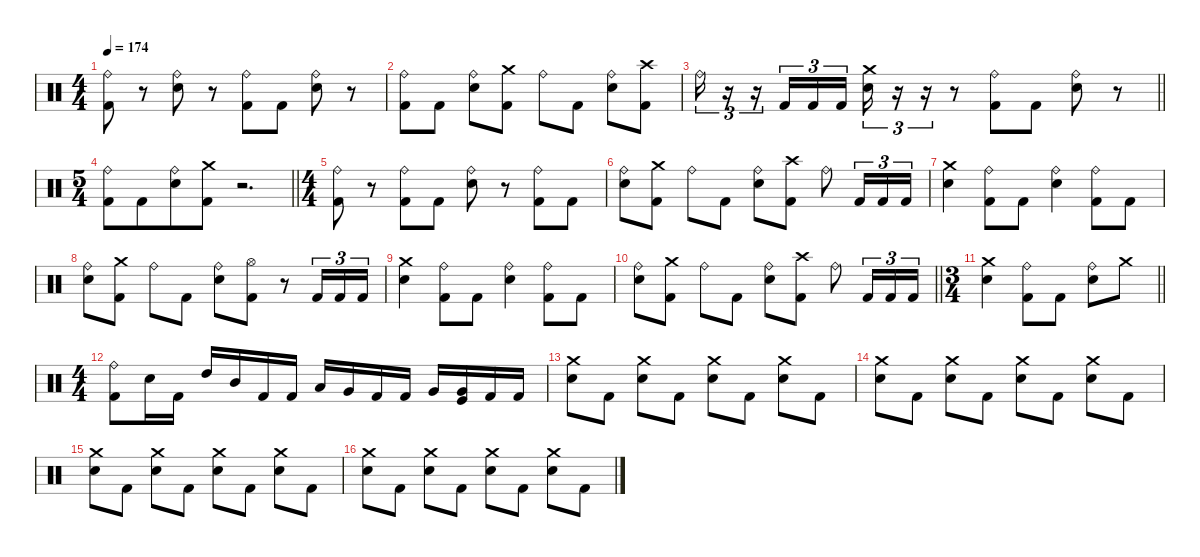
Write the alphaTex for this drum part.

\defaultSystemsLayout 4
\hideDynamics
\bracketExtendMode nobrackets
\singleTrackTrackNamePolicy hidden
\multiTrackTrackNamePolicy hidden
\firstSystemTrackNameMode fullname
\firstSystemTrackNameOrientation horizontal
\otherSystemsTrackNameOrientation horizontal
\track ("Drums" "drm.") {instrument percussion}
\staff {score}
\articulation defaults
\ts (4 4)
\tempo 174
\clef neutral
\ks c
("Ride (bell)" "Kick (hit) 2").8{dy f beam Down} r.8{beam Down} ("Ride (bell)" "Snare (hit) 2").8{beam Down} r.8{beam Down} ("Ride (bell)" "Kick (hit) 2").8{beam Down} "Kick (hit) 2".8{beam Down} ("Ride (bell)" "Snare (hit) 2").8{beam Down} r.8{beam Down} |
("Ride (bell)" "Kick (hit) 2").8{beam Down} "Kick (hit) 2".8{beam Down} ("Ride (bell)" "Snare (hit) 2").8{beam Down} ("Crash medium (hit)" "Kick (hit) 2").8{beam Down} "Ride (bell)".8{beam Down} "Kick (hit) 2".8{beam Down} ("Ride (bell)" "Snare (hit) 2").8{beam Down} ("Crash high (hit)" "Kick (hit) 2").8{beam Down} |
\barLineRight lightlight "Ride (bell)".16{tu (3 2) beam Down}
r.16{tu (3 2) beam Down} r.16{tu (3 2) beam Down} "Kick (hit) 2".16{tu (3 2) beam Up} "Kick (hit) 2".16{tu (3 2) beam Up} "Kick (hit) 2".16{tu (3 2) beam Up} ("Crash medium (hit)" "Snare (hit) 2").16{tu (3 2) beam Down} r.16{tu (3 2) beam Down} r.16{tu (3 2) beam Down} r.8{beam Down} ("Ride (bell)" "Kick (hit) 2").8{beam Down} "Kick (hit) 2".8{beam Down} ("Ride (bell)" "Snare (hit) 2").8{beam Down} r.8{beam Down} |
\ts (5 4)
\beaming (8 6 4)
\barLineRight lightlight
("Ride (bell)" "Kick (hit) 2").8{beam Down} "Kick (hit) 2".8{beam Down} ("Ride (bell)" "Snare (hit) 2").8{beam Down} ("Crash medium (hit)" "Kick (hit) 2").8{beam Down} r.2{d beam Down} |
\ts (4 4)
\beaming (8 2 2 2 2)
("Ride (bell)" "Kick (hit) 2").8{beam Down} r.8{beam Down} ("Ride (bell)" "Kick (hit) 2").8{beam Down} "Kick (hit) 2".8{beam Down} ("Ride (bell)" "Snare (hit) 2").8{beam Down} r.8{beam Down} ("Ride (bell)" "Kick (hit) 2").8{beam Down} "Kick (hit) 2".8{beam Down} |
("Ride (bell)" "Snare (hit) 2").8{beam Down} ("Crash medium (hit)" "Kick (hit) 2").8{beam Down} "Ride (bell)".8{beam Down} "Kick (hit) 2".8{beam Down} ("Ride (bell)" "Snare (hit) 2").8{beam Down} ("Crash high (hit)" "Kick (hit) 2").8{beam Down} "Ride (bell)".8{beam Down} "Kick (hit) 2".16{tu (3 2) beam Up} "Kick (hit) 2".16{tu (3 2) beam Up} "Kick (hit) 2".16{tu (3 2) beam Up} |
("Crash medium (hit)" "Snare (hit) 2").4{beam Down} ("Ride (bell)" "Kick (hit) 2").8{beam Down} "Kick (hit) 2".8{beam Down} ("Ride (bell)" "Snare (hit) 2").4{beam Down} ("Ride (bell)" "Kick (hit) 2").8{beam Down} "Kick (hit) 2".8{beam Down} |
("Ride (bell)" "Snare (hit) 2").8{beam Down} ("Crash medium (hit)" "Kick (hit) 2").8{beam Down} "Ride (bell)".8{beam Down} "Kick (hit) 2".8{beam Down} ("Ride (bell)" "Snare (hit) 2").8{beam Down} ("Hi-Hat (open)" "Kick (hit) 2").8{beam Down} r.8{beam Down} "Kick (hit) 2".16{tu (3 2) beam Up} "Kick (hit) 2".16{tu (3 2) beam Up} "Kick (hit) 2".16{tu (3 2) beam Up} |
("Crash medium (hit)" "Snare (hit) 2").4{beam Down} ("Ride (bell)" "Kick (hit) 2").8{beam Down} "Kick (hit) 2".8{beam Down} ("Ride (bell)" "Snare (hit) 2").4{beam Down} ("Ride (bell)" "Kick (hit) 2").8{beam Down} "Kick (hit) 2".8{beam Down} |
\barLineRight lightlight
("Ride (bell)" "Snare (hit) 2").8{beam Down} ("Crash medium (hit)" "Kick (hit) 2").8{beam Down} "Ride (bell)".8{beam Down} "Kick (hit) 2".8{beam Down} ("Ride (bell)" "Snare (hit) 2").8{beam Down} ("Crash high (hit)" "Kick (hit) 2").8{beam Down} "Ride (bell)".8{beam Down} "Kick (hit) 2".16{tu (3 2) beam Up} "Kick (hit) 2".16{tu (3 2) beam Up} "Kick (hit) 2".16{tu (3 2) beam Up} |
\ts (3 4)
\beaming (8 2 2 2)
\barLineRight lightlight
("Crash medium (hit)" "Snare (hit) 2").4{beam Down} ("Ride (bell)" "Kick (hit) 2").8{beam Down} "Kick (hit) 2".8{beam Down} ("Ride (bell)" "Snare (hit) 2").8{beam Down} "Crash medium (hit)".8{beam Down} |
\ts (4 4)
\beaming (8 2 2 2 2)
("Ride (bell)" "Kick (hit) 2").8{beam Down} "Snare (hit) 2".16{beam Down} "Kick (hit) 2".16{beam Down} "High Tom (hit)".16{beam Up} "Mid Tom (hit)".16{beam Up} "Kick (hit) 2".16{beam Up} "Kick (hit) 2".16{beam Up} "Low Tom (hit)".16{beam Up} "Very Low Tom (hit)".16{beam Up} "Kick (hit) 2".16{beam Up} "Kick (hit) 2".16{beam Up} "Very Low Tom (hit)".16{beam Up} ("Very Low Tom (hit)" "Kick (hit)").16{beam Up} "Kick (hit) 2".16{beam Up} "Kick (hit) 2".16{beam Up} |
("Crash medium (hit)" "Snare (hit) 2").8{beam Down} "Kick (hit) 2".8{beam Down} ("Crash medium (hit)" "Snare (hit) 2").8{beam Down} "Kick (hit) 2".8{beam Down} ("Crash medium (hit)" "Snare (hit) 2").8{beam Down} "Kick (hit) 2".8{beam Down} ("Crash medium (hit)" "Snare (hit) 2").8{beam Down} "Kick (hit) 2".8{beam Down} |
("Crash medium (hit)" "Snare (hit) 2").8{beam Down} "Kick (hit) 2".8{beam Down} ("Crash medium (hit)" "Snare (hit) 2").8{beam Down} "Kick (hit) 2".8{beam Down} ("Crash medium (hit)" "Snare (hit) 2").8{beam Down} "Kick (hit) 2".8{beam Down} ("Crash medium (hit)" "Snare (hit) 2").8{beam Down} "Kick (hit) 2".8{beam Down} |
("Crash medium (hit)" "Snare (hit) 2").8{beam Down} "Kick (hit) 2".8{beam Down} ("Crash medium (hit)" "Snare (hit) 2").8{beam Down} "Kick (hit) 2".8{beam Down} ("Crash medium (hit)" "Snare (hit) 2").8{beam Down} "Kick (hit) 2".8{beam Down} ("Crash medium (hit)" "Snare (hit) 2").8{beam Down} "Kick (hit) 2".8{beam Down} |
("Crash medium (hit)" "Snare (hit) 2").8{beam Down} "Kick (hit) 2".8{beam Down} ("Crash medium (hit)" "Snare (hit) 2").8{beam Down} "Kick (hit) 2".8{beam Down} ("Crash medium (hit)" "Snare (hit) 2").8{beam Down} "Kick (hit) 2".8{beam Down} ("Crash medium (hit)" "Snare (hit) 2").8{beam Down} "Kick (hit) 2".8{beam Down}
